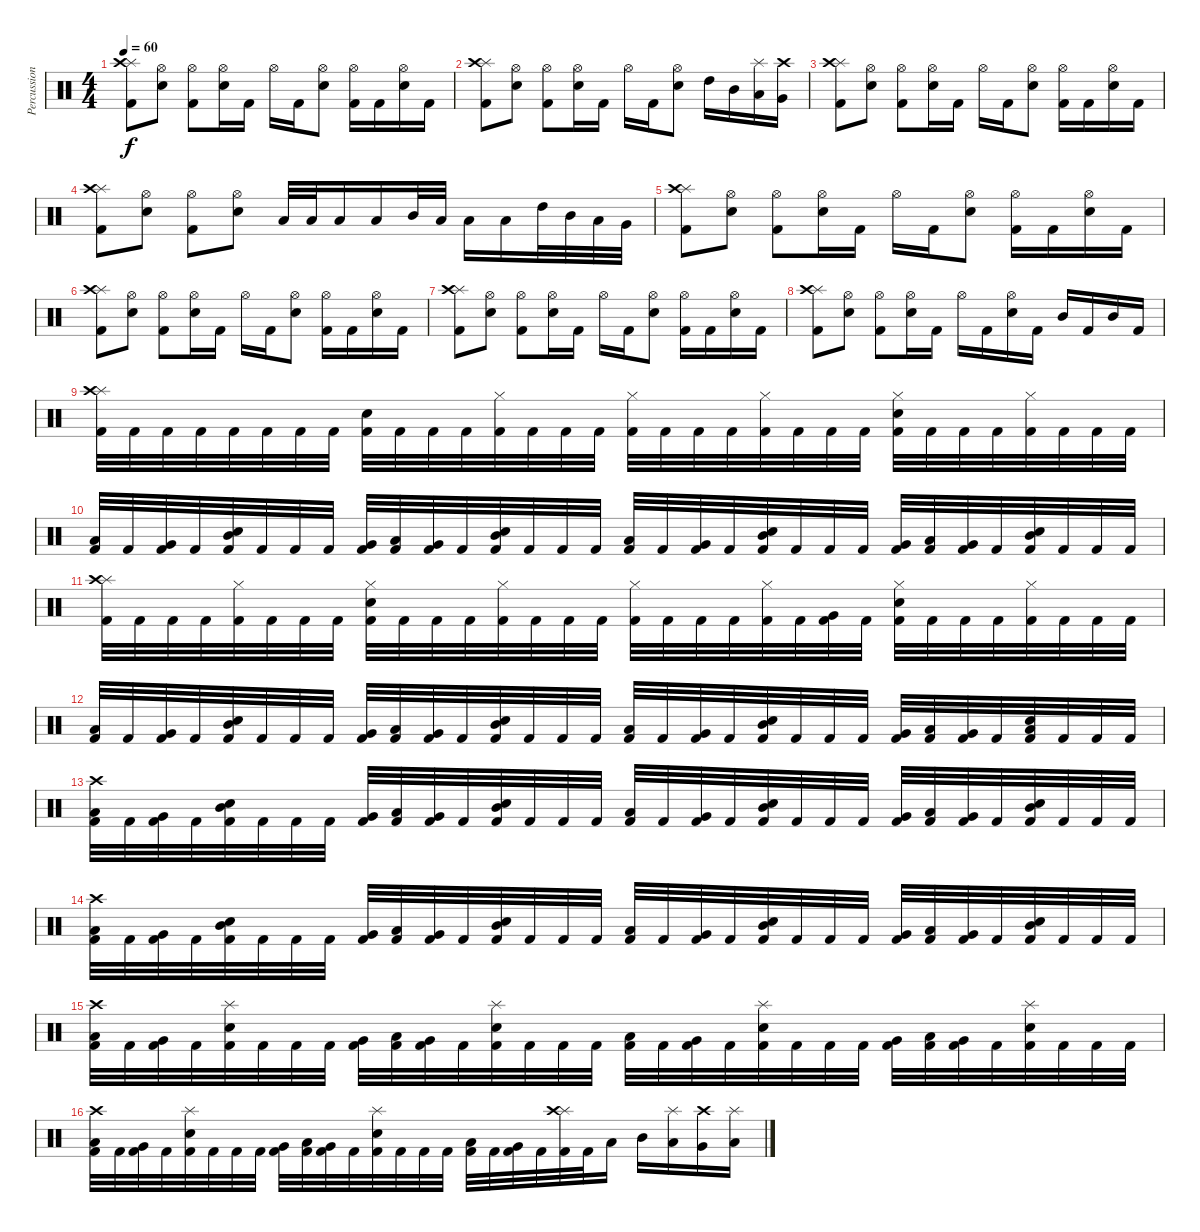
\track ("Percussion" "Percussion") {instrument percussion}
\staff {score}
\articulation defaults
\ts (4 4)
\tempo 60
\clef neutral
\ks c
("Splash (hit)" "Crash high (hit)" "Kick (hit) 2").8{dy f} ("Hi-Hat (open)" "Snare (hit) 2").8 ("Hi-Hat (open)" "Kick (hit) 2").8 ("Hi-Hat (open)" "Snare (hit) 2").16 "Kick (hit) 2".16 "Hi-Hat (open)".16 "Kick (hit) 2".16 ("Hi-Hat (open)" "Snare (hit) 2").8 ("Hi-Hat (open)" "Kick (hit) 2").16 "Kick (hit) 2".16 ("Hi-Hat (open)" "Snare (hit) 2").16 "Kick (hit) 2".16 |
("Splash (hit)" "Crash high (hit)" "Kick (hit) 2").8 ("Hi-Hat (open)" "Snare (hit) 2").8 ("Hi-Hat (open)" "Kick (hit) 2").8 ("Hi-Hat (open)" "Snare (hit) 2").16 "Kick (hit) 2".16 "Hi-Hat (open)".16 "Kick (hit) 2".16 ("Hi-Hat (open)" "Snare (hit) 2").8 "High Tom (hit)".16 "Mid Tom (hit)".16 ("Splash (hit)" "Low Tom (hit)").16 ("Crash high (hit)" "Very Low Tom (hit)").16 |
("Splash (hit)" "Crash high (hit)" "Kick (hit) 2").8 ("Hi-Hat (open)" "Snare (hit) 2").8 ("Hi-Hat (open)" "Kick (hit) 2").8 ("Hi-Hat (open)" "Snare (hit) 2").16 "Kick (hit) 2".16 "Hi-Hat (open)".16 "Kick (hit) 2".16 ("Hi-Hat (open)" "Snare (hit) 2").8 ("Hi-Hat (open)" "Kick (hit) 2").16 "Kick (hit) 2".16 ("Hi-Hat (open)" "Snare (hit) 2").16 "Kick (hit) 2".16 |
("Splash (hit)" "Crash high (hit)" "Kick (hit) 2").8 ("Hi-Hat (open)" "Snare (hit) 2").8 ("Hi-Hat (open)" "Kick (hit) 2").8 ("Hi-Hat (open)" "Snare (hit) 2").8 "Low Tom (hit)".32 "Low Tom (hit)".32 "Low Tom (hit)".16 "Low Tom (hit)".16 "Mid Tom (hit)".32 "Low Tom (hit)".32 "Low Tom (hit)".16 "Low Tom (hit)".16 "High Tom (hit)".32 "Mid Tom (hit)".32 "Low Tom (hit)".32 "Very Low Tom (hit)".32 |
("Splash (hit)" "Crash high (hit)" "Kick (hit) 2").8 ("Hi-Hat (open)" "Snare (hit) 2").8 ("Hi-Hat (open)" "Kick (hit) 2").8 ("Hi-Hat (open)" "Snare (hit) 2").16 "Kick (hit) 2".16 "Hi-Hat (open)".16 "Kick (hit) 2".16 ("Hi-Hat (open)" "Snare (hit) 2").8 ("Hi-Hat (open)" "Kick (hit) 2").16 "Kick (hit) 2".16 ("Hi-Hat (open)" "Snare (hit) 2").16 "Kick (hit) 2".16 |
("Splash (hit)" "Crash high (hit)" "Kick (hit) 2").8 ("Hi-Hat (open)" "Snare (hit) 2").8 ("Hi-Hat (open)" "Kick (hit) 2").8 ("Hi-Hat (open)" "Snare (hit) 2").16 "Kick (hit) 2".16 "Hi-Hat (open)".16 "Kick (hit) 2".16 ("Hi-Hat (open)" "Snare (hit) 2").8 ("Hi-Hat (open)" "Kick (hit) 2").16 "Kick (hit) 2".16 ("Hi-Hat (open)" "Snare (hit) 2").16 "Kick (hit) 2".16 |
("Splash (hit)" "Crash high (hit)" "Kick (hit) 2").8 ("Hi-Hat (open)" "Snare (hit) 2").8 ("Hi-Hat (open)" "Kick (hit) 2").8 ("Hi-Hat (open)" "Snare (hit) 2").16 "Kick (hit) 2".16 "Hi-Hat (open)".16 "Kick (hit) 2".16 ("Hi-Hat (open)" "Snare (hit) 2").8 ("Hi-Hat (open)" "Kick (hit) 2").16 "Kick (hit) 2".16 ("Hi-Hat (open)" "Snare (hit) 2").16 "Kick (hit) 2".16 |
("Splash (hit)" "Crash high (hit)" "Kick (hit) 2").8 ("Hi-Hat (open)" "Snare (hit) 2").8 ("Hi-Hat (open)" "Kick (hit) 2").8 ("Hi-Hat (open)" "Snare (hit) 2").16 "Kick (hit) 2".16 "Hi-Hat (open)".16 "Kick (hit) 2".16 ("Hi-Hat (open)" "Snare (hit) 2").16 "Kick (hit) 2".16 "Mid Tom (hit)".16 "Kick (hit) 2".16 "Mid Tom (hit)".16 "Kick (hit) 2".16 |
("Splash (hit)" "Crash high (hit)" "Kick (hit) 2").32 "Kick (hit) 2".32 "Kick (hit) 2".32 "Kick (hit) 2".32 "Kick (hit) 2".32 "Kick (hit) 2".32 "Kick (hit) 2".32 "Kick (hit) 2".32 ("Snare (hit) 2" "Kick (hit) 2").32 "Kick (hit) 2".32 "Kick (hit) 2".32 "Kick (hit) 2".32 ("Hi-Hat (closed)" "Kick (hit) 2").32 "Kick (hit) 2".32 "Kick (hit) 2".32 "Kick (hit) 2".32 ("Hi-Hat (closed)" "Kick (hit) 2").32 "Kick (hit) 2".32 "Kick (hit) 2".32 "Kick (hit) 2".32 ("Hi-Hat (closed)" "Kick (hit) 2").32 "Kick (hit) 2".32 "Kick (hit) 2".32 "Kick (hit) 2".32 ("Hi-Hat (closed)" "Snare (hit) 2" "Kick (hit) 2").32 "Kick (hit) 2".32 "Kick (hit) 2".32 "Kick (hit) 2".32 ("Hi-Hat (closed)" "Kick (hit) 2").32 "Kick (hit) 2".32 "Kick (hit) 2".32 "Kick (hit) 2".32 |
("Low Tom (hit)" "Kick (hit) 2").32 "Kick (hit) 2".32 ("Very Low Tom (hit)" "Kick (hit) 2").32 "Kick (hit) 2".32 ("Mid Tom (hit)" "Snare (hit) 2" "Kick (hit) 2").32 "Kick (hit) 2".32 "Kick (hit) 2".32 "Kick (hit) 2".32 ("Very Low Tom (hit)" "Kick (hit) 2").32 ("Low Tom (hit)" "Kick (hit) 2").32 ("Very Low Tom (hit)" "Kick (hit) 2").32 "Kick (hit) 2".32 ("Mid Tom (hit)" "Snare (hit) 2" "Kick (hit) 2").32 "Kick (hit) 2".32 "Kick (hit) 2".32 "Kick (hit) 2".32 ("Low Tom (hit)" "Kick (hit) 2").32 "Kick (hit) 2".32 ("Very Low Tom (hit)" "Kick (hit) 2").32 "Kick (hit) 2".32 ("Mid Tom (hit)" "Snare (hit) 2" "Kick (hit) 2").32 "Kick (hit) 2".32 "Kick (hit) 2".32 "Kick (hit) 2".32 ("Very Low Tom (hit)" "Kick (hit) 2").32 ("Low Tom (hit)" "Kick (hit) 2").32 ("Very Low Tom (hit)" "Kick (hit) 2").32 "Kick (hit) 2".32 ("Mid Tom (hit)" "Snare (hit) 2" "Kick (hit) 2").32 "Kick (hit) 2".32 "Kick (hit) 2".32 "Kick (hit) 2".32 |
("Splash (hit)" "Crash high (hit)" "Kick (hit) 2").32 "Kick (hit) 2".32 "Kick (hit) 2".32 "Kick (hit) 2".32 ("Hi-Hat (closed)" "Kick (hit) 2").32 "Kick (hit) 2".32 "Kick (hit) 2".32 "Kick (hit) 2".32 ("Hi-Hat (closed)" "Snare (hit) 2" "Kick (hit) 2").32 "Kick (hit) 2".32 "Kick (hit) 2".32 "Kick (hit) 2".32 ("Hi-Hat (closed)" "Kick (hit) 2").32 "Kick (hit) 2".32 "Kick (hit) 2".32 "Kick (hit) 2".32 ("Hi-Hat (closed)" "Kick (hit) 2").32 "Kick (hit) 2".32 "Kick (hit) 2".32 "Kick (hit) 2".32 ("Hi-Hat (closed)" "Kick (hit) 2").32 "Kick (hit) 2".32 ("Very Low Tom (hit)" "Kick (hit) 2").32 "Kick (hit) 2".32 ("Hi-Hat (closed)" "Snare (hit) 2" "Kick (hit) 2").32 "Kick (hit) 2".32 "Kick (hit) 2".32 "Kick (hit) 2".32 ("Hi-Hat (closed)" "Kick (hit) 2").32 "Kick (hit) 2".32 "Kick (hit) 2".32 "Kick (hit) 2".32 |
("Low Tom (hit)" "Kick (hit) 2").32 "Kick (hit) 2".32 ("Very Low Tom (hit)" "Kick (hit) 2").32 "Kick (hit) 2".32 ("Mid Tom (hit)" "Snare (hit) 2" "Kick (hit) 2").32 "Kick (hit) 2".32 "Kick (hit) 2".32 "Kick (hit) 2".32 ("Very Low Tom (hit)" "Kick (hit) 2").32 ("Low Tom (hit)" "Kick (hit) 2").32 ("Very Low Tom (hit)" "Kick (hit) 2").32 "Kick (hit) 2".32 ("Mid Tom (hit)" "Snare (hit) 2" "Kick (hit) 2").32 "Kick (hit) 2".32 "Kick (hit) 2".32 "Kick (hit) 2".32 ("Low Tom (hit)" "Kick (hit) 2").32 "Kick (hit) 2".32 ("Very Low Tom (hit)" "Kick (hit) 2").32 "Kick (hit) 2".32 ("Mid Tom (hit)" "Snare (hit) 2" "Kick (hit) 2").32 "Kick (hit) 2".32 "Kick (hit) 2".32 "Kick (hit) 2".32 ("Very Low Tom (hit)" "Kick (hit) 2").32 ("Low Tom (hit)" "Kick (hit) 2").32 ("Very Low Tom (hit)" "Kick (hit) 2").32 "Kick (hit) 2".32 ("Low Floor Tom (hit)" "Snare (hit) 2" "Kick (hit) 2").32 "Kick (hit) 2".32 "Kick (hit) 2".32 "Kick (hit) 2".32 |
("Crash high (hit)" "Low Tom (hit)" "Kick (hit) 2").32 "Kick (hit) 2".32 ("Very Low Tom (hit)" "Kick (hit) 2").32 "Kick (hit) 2".32 ("Mid Tom (hit)" "Snare (hit) 2" "Kick (hit) 2").32 "Kick (hit) 2".32 "Kick (hit) 2".32 "Kick (hit) 2".32 ("Very Low Tom (hit)" "Kick (hit) 2").32 ("Low Tom (hit)" "Kick (hit) 2").32 ("Very Low Tom (hit)" "Kick (hit) 2").32 "Kick (hit) 2".32 ("Mid Tom (hit)" "Snare (hit) 2" "Kick (hit) 2").32 "Kick (hit) 2".32 "Kick (hit) 2".32 "Kick (hit) 2".32 ("Low Tom (hit)" "Kick (hit) 2").32 "Kick (hit) 2".32 ("Very Low Tom (hit)" "Kick (hit) 2").32 "Kick (hit) 2".32 ("Mid Tom (hit)" "Snare (hit) 2" "Kick (hit) 2").32 "Kick (hit) 2".32 "Kick (hit) 2".32 "Kick (hit) 2".32 ("Very Low Tom (hit)" "Kick (hit) 2").32 ("Low Tom (hit)" "Kick (hit) 2").32 ("Very Low Tom (hit)" "Kick (hit) 2").32 "Kick (hit) 2".32 ("Mid Tom (hit)" "Snare (hit) 2" "Kick (hit) 2").32 "Kick (hit) 2".32 "Kick (hit) 2".32 "Kick (hit) 2".32 |
("Crash high (hit)" "Low Tom (hit)" "Kick (hit) 2").32 "Kick (hit) 2".32 ("Very Low Tom (hit)" "Kick (hit) 2").32 "Kick (hit) 2".32 ("Mid Tom (hit)" "Snare (hit) 2" "Kick (hit) 2").32 "Kick (hit) 2".32 "Kick (hit) 2".32 "Kick (hit) 2".32 ("Very Low Tom (hit)" "Kick (hit) 2").32 ("Low Tom (hit)" "Kick (hit) 2").32 ("Very Low Tom (hit)" "Kick (hit) 2").32 "Kick (hit) 2".32 ("Mid Tom (hit)" "Snare (hit) 2" "Kick (hit) 2").32 "Kick (hit) 2".32 "Kick (hit) 2".32 "Kick (hit) 2".32 ("Low Tom (hit)" "Kick (hit) 2").32 "Kick (hit) 2".32 ("Very Low Tom (hit)" "Kick (hit) 2").32 "Kick (hit) 2".32 ("Mid Tom (hit)" "Snare (hit) 2" "Kick (hit) 2").32 "Kick (hit) 2".32 "Kick (hit) 2".32 "Kick (hit) 2".32 ("Very Low Tom (hit)" "Kick (hit) 2").32 ("Low Tom (hit)" "Kick (hit) 2").32 ("Very Low Tom (hit)" "Kick (hit) 2").32 "Kick (hit) 2".32 ("Mid Tom (hit)" "Snare (hit) 2" "Kick (hit) 2").32 "Kick (hit) 2".32 "Kick (hit) 2".32 "Kick (hit) 2".32 |
("Crash high (hit)" "Low Tom (hit)" "Kick (hit) 2").32 "Kick (hit) 2".32 ("Very Low Tom (hit)" "Kick (hit) 2").32 "Kick (hit) 2".32 ("Splash (hit)" "Snare (hit) 2" "Kick (hit) 2").32 "Kick (hit) 2".32 "Kick (hit) 2".32 "Kick (hit) 2".32 ("Very Low Tom (hit)" "Kick (hit) 2").32 ("Low Tom (hit)" "Kick (hit) 2").32 ("Very Low Tom (hit)" "Kick (hit) 2").32 "Kick (hit) 2".32 ("Splash (hit)" "Snare (hit) 2" "Kick (hit) 2").32 "Kick (hit) 2".32 "Kick (hit) 2".32 "Kick (hit) 2".32 ("Low Tom (hit)" "Kick (hit) 2").32 "Kick (hit) 2".32 ("Very Low Tom (hit)" "Kick (hit) 2").32 "Kick (hit) 2".32 ("Splash (hit)" "Snare (hit) 2" "Kick (hit) 2").32 "Kick (hit) 2".32 "Kick (hit) 2".32 "Kick (hit) 2".32 ("Very Low Tom (hit)" "Kick (hit) 2").32 ("Low Tom (hit)" "Kick (hit) 2").32 ("Very Low Tom (hit)" "Kick (hit) 2").32 "Kick (hit) 2".32 ("Splash (hit)" "Snare (hit) 2" "Kick (hit) 2").32 "Kick (hit) 2".32 "Kick (hit) 2".32 "Kick (hit) 2".32 |
("Crash high (hit)" "Low Tom (hit)" "Kick (hit) 2").32 "Kick (hit) 2".32 ("Very Low Tom (hit)" "Kick (hit) 2").32 "Kick (hit) 2".32 ("Splash (hit)" "Snare (hit) 2" "Kick (hit) 2").32 "Kick (hit) 2".32 "Kick (hit) 2".32 "Kick (hit) 2".32 ("Very Low Tom (hit)" "Kick (hit) 2").32 ("Low Tom (hit)" "Kick (hit) 2").32 ("Very Low Tom (hit)" "Kick (hit) 2").32 "Kick (hit) 2".32 ("Splash (hit)" "Snare (hit) 2" "Kick (hit) 2").32 "Kick (hit) 2".32 "Kick (hit) 2".32 "Kick (hit) 2".32 ("Low Tom (hit)" "Kick (hit) 2").32 "Kick (hit) 2".32 ("Very Low Tom (hit)" "Kick (hit) 2").32 "Kick (hit) 2".32 ("Splash (hit)" "Crash high (hit)" "Kick (hit) 2").32 "Kick (hit) 2".32 "Low Floor Tom (hit)".16 "Mid Tom (hit)".16 ("Splash (hit)" "Low Tom (hit)").16 ("Crash high (hit)" "Very Low Tom (hit)").16 ("Splash (hit)" "Low Floor Tom (hit)").16
